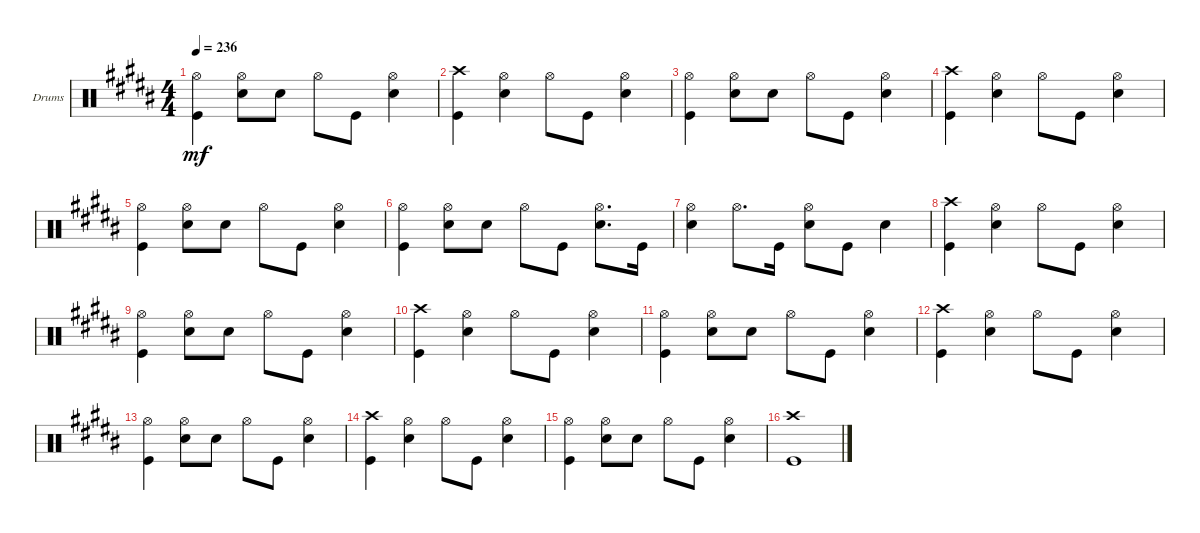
\defaultSystemsLayout 4
\bracketExtendMode groupsimilarinstruments
\firstSystemTrackNameOrientation horizontal
\otherSystemsTrackNameOrientation horizontal
\track ("Drums" "Drums") {instrument percussion}
\staff {score}
\articulation defaults
\ts (4 4)
\tempo 236
\clef neutral
\ks b
("Kick (hit)" "Hi-Hat (open)").4{dy mf} ("Hi-Hat (open)" "Snare (hit) 2").8 "Snare (hit) 2".8 "Hi-Hat (open)".8 "Kick (hit)".8 ("Snare (hit) 2" "Hi-Hat (open)").4 |
("Kick (hit)" "Crash high (hit)").4 ("Snare (hit) 2" "Hi-Hat (open)").4 "Hi-Hat (open)".8 "Kick (hit)".8 ("Snare (hit) 2" "Hi-Hat (open)").4 |
("Kick (hit)" "Hi-Hat (open)").4 ("Hi-Hat (open)" "Snare (hit) 2").8 "Snare (hit) 2".8 "Hi-Hat (open)".8 "Kick (hit)".8 ("Snare (hit) 2" "Hi-Hat (open)").4 |
("Kick (hit)" "Crash high (hit)").4 ("Snare (hit) 2" "Hi-Hat (open)").4 "Hi-Hat (open)".8 "Kick (hit)".8 ("Snare (hit) 2" "Hi-Hat (open)").4 |
("Kick (hit)" "Hi-Hat (open)").4 ("Hi-Hat (open)" "Snare (hit) 2").8 "Snare (hit) 2".8 "Hi-Hat (open)".8 "Kick (hit)".8 ("Snare (hit) 2" "Hi-Hat (open)").4 |
("Kick (hit)" "Hi-Hat (open)").4 ("Hi-Hat (open)" "Snare (hit) 2").8 "Snare (hit) 2".8 "Hi-Hat (open)".8 "Kick (hit)".8 ("Snare (hit) 2" "Hi-Hat (open)").8{d} "Kick (hit)".16 |
("Snare (hit) 2" "Hi-Hat (open)").4 "Hi-Hat (open)".8{d} "Kick (hit)".16 ("Snare (hit) 2" "Hi-Hat (open)").8 "Kick (hit)".8 "Snare (hit) 2".4 |
("Kick (hit)" "Crash high (hit)").4 ("Snare (hit) 2" "Hi-Hat (open)").4 "Hi-Hat (open)".8 "Kick (hit)".8 ("Snare (hit) 2" "Hi-Hat (open)").4 |
("Kick (hit)" "Hi-Hat (open)").4 ("Hi-Hat (open)" "Snare (hit) 2").8 "Snare (hit) 2".8 "Hi-Hat (open)".8 "Kick (hit)".8 ("Snare (hit) 2" "Hi-Hat (open)").4 |
("Kick (hit)" "Crash high (hit)").4 ("Snare (hit) 2" "Hi-Hat (open)").4 "Hi-Hat (open)".8 "Kick (hit)".8 ("Snare (hit) 2" "Hi-Hat (open)").4 |
("Kick (hit)" "Hi-Hat (open)").4 ("Hi-Hat (open)" "Snare (hit) 2").8 "Snare (hit) 2".8 "Hi-Hat (open)".8 "Kick (hit)".8 ("Snare (hit) 2" "Hi-Hat (open)").4 |
("Kick (hit)" "Crash high (hit)").4 ("Snare (hit) 2" "Hi-Hat (open)").4 "Hi-Hat (open)".8 "Kick (hit)".8 ("Snare (hit) 2" "Hi-Hat (open)").4 |
("Kick (hit)" "Hi-Hat (open)").4 ("Hi-Hat (open)" "Snare (hit) 2").8 "Snare (hit) 2".8 "Hi-Hat (open)".8 "Kick (hit)".8 ("Snare (hit) 2" "Hi-Hat (open)").4 |
("Kick (hit)" "Crash high (hit)").4 ("Snare (hit) 2" "Hi-Hat (open)").4 "Hi-Hat (open)".8 "Kick (hit)".8 ("Snare (hit) 2" "Hi-Hat (open)").4 |
("Kick (hit)" "Hi-Hat (open)").4 ("Hi-Hat (open)" "Snare (hit) 2").8 "Snare (hit) 2".8 "Hi-Hat (open)".8 "Kick (hit)".8 ("Snare (hit) 2" "Hi-Hat (open)").4 |
("Kick (hit)" "Crash high (hit)").1
